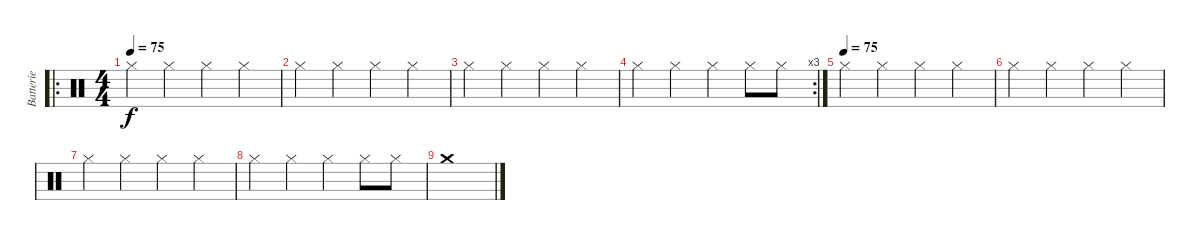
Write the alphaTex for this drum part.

\track ("Batterie" "Batterie") {instrument percussion}
\staff {score}
\articulation defaults
\ro
\ts (4 4)
\tempo 75
\clef neutral
\ks c "Hi-Hat (closed)".4{dy f} "Hi-Hat (closed)".4 "Hi-Hat (closed)".4 "Hi-Hat (closed)".4
|
"Hi-Hat (closed)".4 "Hi-Hat (closed)".4 "Hi-Hat (closed)".4 "Hi-Hat (closed)".4 |
"Hi-Hat (closed)".4 "Hi-Hat (closed)".4 "Hi-Hat (closed)".4 "Hi-Hat (closed)".4 |
\rc 3 "Hi-Hat (closed)".4 "Hi-Hat (closed)".4 "Hi-Hat (closed)".4 "Hi-Hat (closed)".8 "Hi-Hat (closed)".8
|
\tempo (75)
"Hi-Hat (closed)".4 "Hi-Hat (closed)".4 "Hi-Hat (closed)".4 "Hi-Hat (closed)".4 |
"Hi-Hat (closed)".4 "Hi-Hat (closed)".4 "Hi-Hat (closed)".4 "Hi-Hat (closed)".4 |
"Hi-Hat (closed)".4 "Hi-Hat (closed)".4 "Hi-Hat (closed)".4 "Hi-Hat (closed)".4 |
"Hi-Hat (closed)".4 "Hi-Hat (closed)".4 "Hi-Hat (closed)".4 "Hi-Hat (closed)".8 "Hi-Hat (closed)".8 |
"Crash medium (hit)".1
